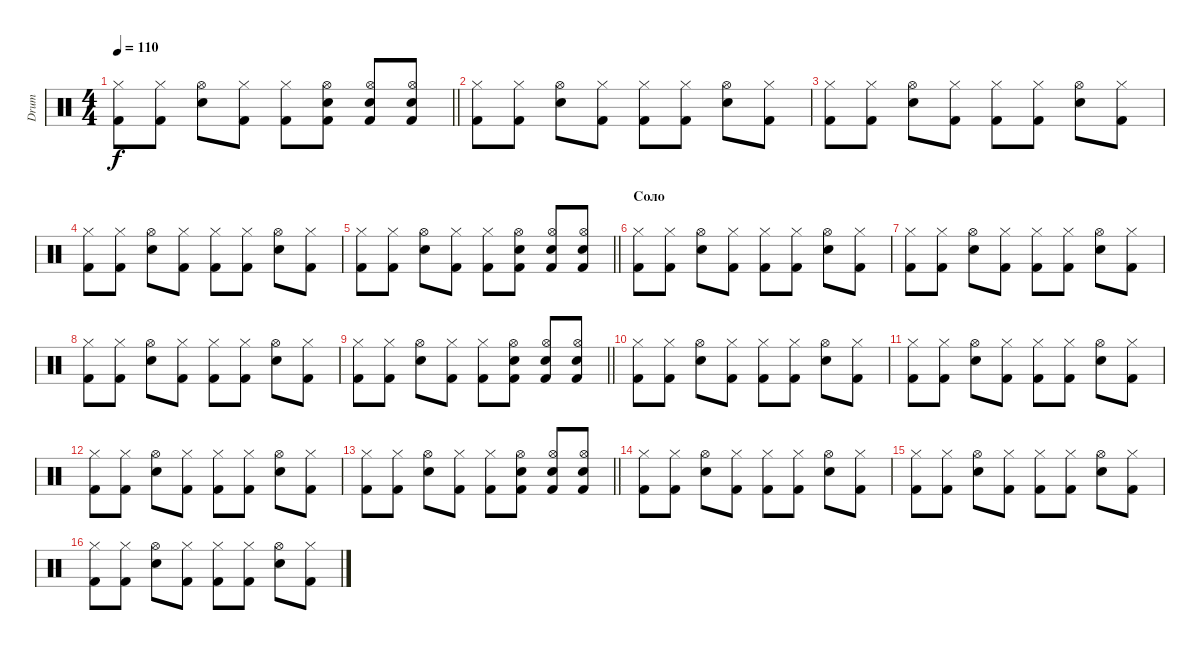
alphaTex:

\track ("Drum" "Drum") {instrument percussion}
\staff {score}
\articulation defaults
\ts (4 4)
\tempo 110
\clef neutral
\barLineRight lightlight
\ks c
("Hi-Hat (closed)" "Kick (hit) 2").8{dy f} ("Hi-Hat (closed)" "Kick (hit) 2").8 ("Hi-Hat (open)" "Snare (hit) 2").8 ("Hi-Hat (closed)" "Kick (hit) 2").8 ("Hi-Hat (closed)" "Kick (hit) 2").8 ("Hi-Hat (open)" "Snare (hit) 2" "Kick (hit) 2").8 ("Hi-Hat (open)" "Snare (hit) 2" "Kick (hit) 2").8 ("Hi-Hat (open)" "Snare (hit) 2" "Kick (hit) 2").8 |
("Hi-Hat (closed)" "Kick (hit) 2").8 ("Hi-Hat (closed)" "Kick (hit) 2").8 ("Hi-Hat (open)" "Snare (hit) 2").8 ("Hi-Hat (closed)" "Kick (hit) 2").8 ("Hi-Hat (closed)" "Kick (hit) 2").8 ("Hi-Hat (closed)" "Kick (hit) 2").8 ("Hi-Hat (open)" "Snare (hit) 2").8 ("Hi-Hat (closed)" "Kick (hit) 2").8 |
("Hi-Hat (closed)" "Kick (hit) 2").8 ("Hi-Hat (closed)" "Kick (hit) 2").8 ("Hi-Hat (open)" "Snare (hit) 2").8 ("Hi-Hat (closed)" "Kick (hit) 2").8 ("Hi-Hat (closed)" "Kick (hit) 2").8 ("Hi-Hat (closed)" "Kick (hit) 2").8 ("Hi-Hat (open)" "Snare (hit) 2").8 ("Hi-Hat (closed)" "Kick (hit) 2").8 |
("Hi-Hat (closed)" "Kick (hit) 2").8 ("Hi-Hat (closed)" "Kick (hit) 2").8 ("Hi-Hat (open)" "Snare (hit) 2").8 ("Hi-Hat (closed)" "Kick (hit) 2").8 ("Hi-Hat (closed)" "Kick (hit) 2").8 ("Hi-Hat (closed)" "Kick (hit) 2").8 ("Hi-Hat (open)" "Snare (hit) 2").8 ("Hi-Hat (closed)" "Kick (hit) 2").8 |
\barLineRight lightlight
("Hi-Hat (closed)" "Kick (hit) 2").8 ("Hi-Hat (closed)" "Kick (hit) 2").8 ("Hi-Hat (open)" "Snare (hit) 2").8 ("Hi-Hat (closed)" "Kick (hit) 2").8 ("Hi-Hat (closed)" "Kick (hit) 2").8 ("Hi-Hat (open)" "Snare (hit) 2" "Kick (hit) 2").8 ("Hi-Hat (open)" "Snare (hit) 2" "Kick (hit) 2").8 ("Hi-Hat (open)" "Snare (hit) 2" "Kick (hit) 2").8 |
\section ("" "Соло")
("Hi-Hat (closed)" "Kick (hit) 2").8 ("Hi-Hat (closed)" "Kick (hit) 2").8 ("Hi-Hat (open)" "Snare (hit) 2").8 ("Hi-Hat (closed)" "Kick (hit) 2").8 ("Hi-Hat (closed)" "Kick (hit) 2").8 ("Hi-Hat (closed)" "Kick (hit) 2").8 ("Hi-Hat (open)" "Snare (hit) 2").8 ("Hi-Hat (closed)" "Kick (hit) 2").8 |
("Hi-Hat (closed)" "Kick (hit) 2").8 ("Hi-Hat (closed)" "Kick (hit) 2").8 ("Hi-Hat (open)" "Snare (hit) 2").8 ("Hi-Hat (closed)" "Kick (hit) 2").8 ("Hi-Hat (closed)" "Kick (hit) 2").8 ("Hi-Hat (closed)" "Kick (hit) 2").8 ("Hi-Hat (open)" "Snare (hit) 2").8 ("Hi-Hat (closed)" "Kick (hit) 2").8 |
("Hi-Hat (closed)" "Kick (hit) 2").8 ("Hi-Hat (closed)" "Kick (hit) 2").8 ("Hi-Hat (open)" "Snare (hit) 2").8 ("Hi-Hat (closed)" "Kick (hit) 2").8 ("Hi-Hat (closed)" "Kick (hit) 2").8 ("Hi-Hat (closed)" "Kick (hit) 2").8 ("Hi-Hat (open)" "Snare (hit) 2").8 ("Hi-Hat (closed)" "Kick (hit) 2").8 |
\barLineRight lightlight
("Hi-Hat (closed)" "Kick (hit) 2").8 ("Hi-Hat (closed)" "Kick (hit) 2").8 ("Hi-Hat (open)" "Snare (hit) 2").8 ("Hi-Hat (closed)" "Kick (hit) 2").8 ("Hi-Hat (closed)" "Kick (hit) 2").8 ("Hi-Hat (open)" "Snare (hit) 2" "Kick (hit) 2").8 ("Hi-Hat (open)" "Snare (hit) 2" "Kick (hit) 2").8 ("Hi-Hat (open)" "Snare (hit) 2" "Kick (hit) 2").8 |
("Hi-Hat (closed)" "Kick (hit) 2").8 ("Hi-Hat (closed)" "Kick (hit) 2").8 ("Hi-Hat (open)" "Snare (hit) 2").8 ("Hi-Hat (closed)" "Kick (hit) 2").8 ("Hi-Hat (closed)" "Kick (hit) 2").8 ("Hi-Hat (closed)" "Kick (hit) 2").8 ("Hi-Hat (open)" "Snare (hit) 2").8 ("Hi-Hat (closed)" "Kick (hit) 2").8 |
("Hi-Hat (closed)" "Kick (hit) 2").8 ("Hi-Hat (closed)" "Kick (hit) 2").8 ("Hi-Hat (open)" "Snare (hit) 2").8 ("Hi-Hat (closed)" "Kick (hit) 2").8 ("Hi-Hat (closed)" "Kick (hit) 2").8 ("Hi-Hat (closed)" "Kick (hit) 2").8 ("Hi-Hat (open)" "Snare (hit) 2").8 ("Hi-Hat (closed)" "Kick (hit) 2").8 |
("Hi-Hat (closed)" "Kick (hit) 2").8 ("Hi-Hat (closed)" "Kick (hit) 2").8 ("Hi-Hat (open)" "Snare (hit) 2").8 ("Hi-Hat (closed)" "Kick (hit) 2").8 ("Hi-Hat (closed)" "Kick (hit) 2").8 ("Hi-Hat (closed)" "Kick (hit) 2").8 ("Hi-Hat (open)" "Snare (hit) 2").8 ("Hi-Hat (closed)" "Kick (hit) 2").8 |
\barLineRight lightlight
("Hi-Hat (closed)" "Kick (hit) 2").8 ("Hi-Hat (closed)" "Kick (hit) 2").8 ("Hi-Hat (open)" "Snare (hit) 2").8 ("Hi-Hat (closed)" "Kick (hit) 2").8 ("Hi-Hat (closed)" "Kick (hit) 2").8 ("Hi-Hat (open)" "Snare (hit) 2" "Kick (hit) 2").8 ("Hi-Hat (open)" "Snare (hit) 2" "Kick (hit) 2").8 ("Hi-Hat (open)" "Snare (hit) 2" "Kick (hit) 2").8 |
("Hi-Hat (closed)" "Kick (hit) 2").8 ("Hi-Hat (closed)" "Kick (hit) 2").8 ("Hi-Hat (open)" "Snare (hit) 2").8 ("Hi-Hat (closed)" "Kick (hit) 2").8 ("Hi-Hat (closed)" "Kick (hit) 2").8 ("Hi-Hat (closed)" "Kick (hit) 2").8 ("Hi-Hat (open)" "Snare (hit) 2").8 ("Hi-Hat (closed)" "Kick (hit) 2").8 |
("Hi-Hat (closed)" "Kick (hit) 2").8 ("Hi-Hat (closed)" "Kick (hit) 2").8 ("Hi-Hat (open)" "Snare (hit) 2").8 ("Hi-Hat (closed)" "Kick (hit) 2").8 ("Hi-Hat (closed)" "Kick (hit) 2").8 ("Hi-Hat (closed)" "Kick (hit) 2").8 ("Hi-Hat (open)" "Snare (hit) 2").8 ("Hi-Hat (closed)" "Kick (hit) 2").8 |
("Hi-Hat (closed)" "Kick (hit) 2").8 ("Hi-Hat (closed)" "Kick (hit) 2").8 ("Hi-Hat (open)" "Snare (hit) 2").8 ("Hi-Hat (closed)" "Kick (hit) 2").8 ("Hi-Hat (closed)" "Kick (hit) 2").8 ("Hi-Hat (closed)" "Kick (hit) 2").8 ("Hi-Hat (open)" "Snare (hit) 2").8 ("Hi-Hat (closed)" "Kick (hit) 2").8
